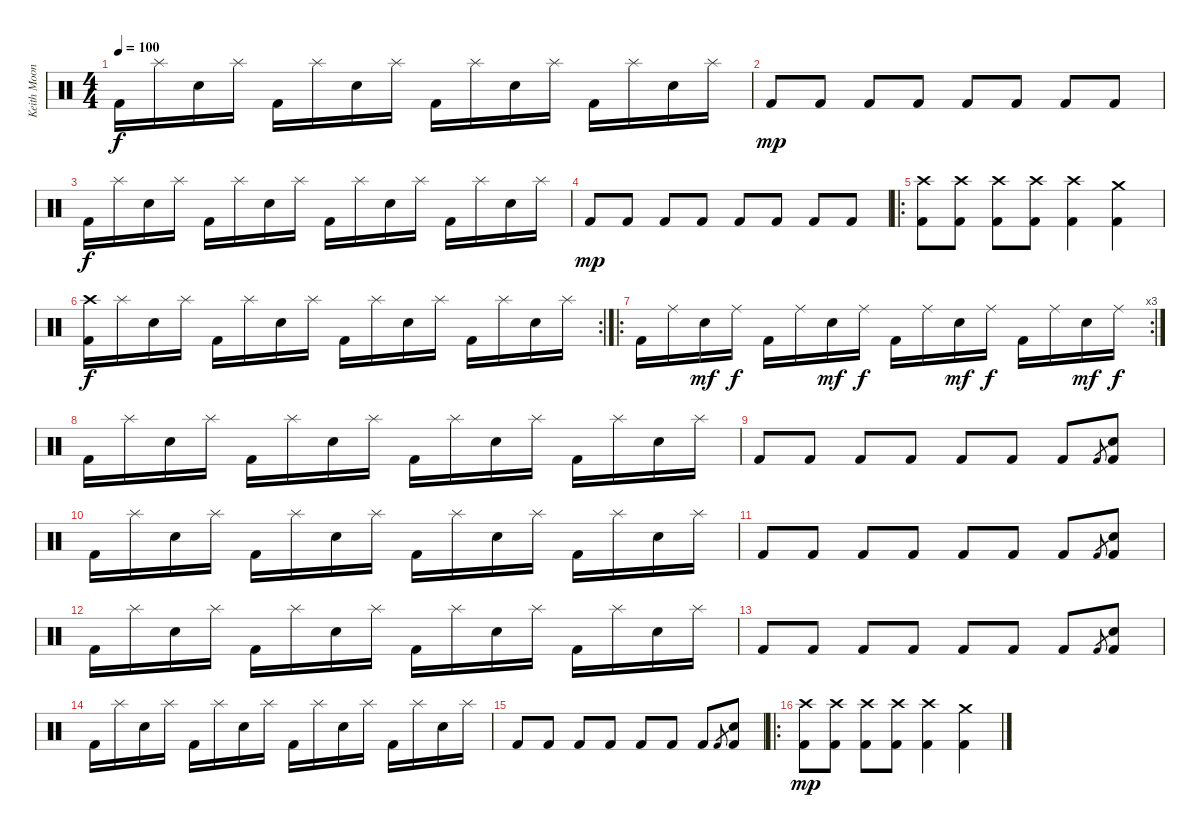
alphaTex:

\track ("Keith Moon - Drums" "Keith Moon") {instrument percussion}
\staff {score}
\articulation defaults
\ts (4 4)
\tempo 100
\clef neutral
\ks c "Kick (hit) 2".16{dy f} "Splash (hit)".16 "Electric Snare (hit)".16 "Splash (hit)".16 "Kick (hit) 2".16 "Splash (hit)".16 "Electric Snare (hit)".16 "Splash (hit)".16 "Kick (hit) 2".16 "Splash (hit)".16 "Electric Snare (hit)".16 "Splash (hit)".16 "Kick (hit) 2".16 "Splash (hit)".16 "Electric Snare (hit)".16 "Splash (hit)".16
|
"Kick (hit) 2".8{dy mp} "Kick (hit) 2".8 "Kick (hit) 2".8 "Kick (hit) 2".8 "Kick (hit) 2".8 "Kick (hit) 2".8 "Kick (hit) 2".8 "Kick (hit) 2".8 |
"Kick (hit) 2".16{dy f} "Splash (hit)".16 "Electric Snare (hit)".16 "Splash (hit)".16 "Kick (hit) 2".16 "Splash (hit)".16 "Electric Snare (hit)".16 "Splash (hit)".16 "Kick (hit) 2".16 "Splash (hit)".16 "Electric Snare (hit)".16 "Splash (hit)".16 "Kick (hit) 2".16 "Splash (hit)".16 "Electric Snare (hit)".16 "Splash (hit)".16 |
"Kick (hit) 2".8{dy mp} "Kick (hit) 2".8 "Kick (hit) 2".8 "Kick (hit) 2".8 "Kick (hit) 2".8 "Kick (hit) 2".8 "Kick (hit) 2".8 "Kick (hit) 2".8 |
\ro
("Kick (hit) 2" "Crash high (hit)").8 ("Kick (hit) 2" "Crash high (hit)").8 ("Kick (hit) 2" "Crash high (hit)").8 ("Kick (hit) 2" "Crash high (hit)").8 ("Kick (hit) 2" "Crash high (hit)").4 ("Kick (hit) 2" "Crash medium (hit)").4 |
\rc 2
("Kick (hit) 2" "Crash high (hit)").16{dy f} "Splash (hit)".16 "Electric Snare (hit)".16 "Splash (hit)".16 "Kick (hit) 2".16 "Splash (hit)".16 "Electric Snare (hit)".16 "Splash (hit)".16 "Kick (hit) 2".16 "Splash (hit)".16 "Electric Snare (hit)".16 "Splash (hit)".16 "Kick (hit) 2".16 "Splash (hit)".16 "Electric Snare (hit)".16 "Splash (hit)".16 |
\ro
\rc 3 "Kick (hit) 2".16 "Ride (middle)".16 "Electric Snare (hit)".16{dy mf} "Ride (middle)".16{dy f} "Kick (hit) 2".16 "Ride (middle)".16 "Electric Snare (hit)".16{dy mf} "Ride (middle)".16{dy f} "Kick (hit) 2".16 "Ride (middle)".16 "Electric Snare (hit)".16{dy mf} "Ride (middle)".16{dy f} "Kick (hit) 2".16 "Ride (middle)".16 "Electric Snare (hit)".16{dy mf} "Ride (middle)".16{dy f}
|
"Kick (hit) 2".16 "Splash (hit)".16 "Electric Snare (hit)".16 "Splash (hit)".16 "Kick (hit) 2".16 "Splash (hit)".16 "Electric Snare (hit)".16 "Splash (hit)".16 "Kick (hit) 2".16 "Splash (hit)".16 "Electric Snare (hit)".16 "Splash (hit)".16 "Kick (hit) 2".16 "Splash (hit)".16 "Electric Snare (hit)".16 "Splash (hit)".16 |
"Kick (hit) 2".8 "Kick (hit) 2".8 "Kick (hit) 2".8 "Kick (hit) 2".8 "Kick (hit) 2".8 "Kick (hit) 2".8 "Kick (hit) 2".8 "Kick (hit) 2".8{gr} ("Kick (hit) 2" "Electric Snare (hit)").8 |
"Kick (hit) 2".16 "Splash (hit)".16 "Electric Snare (hit)".16 "Splash (hit)".16 "Kick (hit) 2".16 "Splash (hit)".16 "Electric Snare (hit)".16 "Splash (hit)".16 "Kick (hit) 2".16 "Splash (hit)".16 "Electric Snare (hit)".16 "Splash (hit)".16 "Kick (hit) 2".16 "Splash (hit)".16 "Electric Snare (hit)".16 "Splash (hit)".16 |
"Kick (hit) 2".8 "Kick (hit) 2".8 "Kick (hit) 2".8 "Kick (hit) 2".8 "Kick (hit) 2".8 "Kick (hit) 2".8 "Kick (hit) 2".8 "Kick (hit) 2".8{gr} ("Kick (hit) 2" "Electric Snare (hit)").8 |
"Kick (hit) 2".16 "Splash (hit)".16 "Electric Snare (hit)".16 "Splash (hit)".16 "Kick (hit) 2".16 "Splash (hit)".16 "Electric Snare (hit)".16 "Splash (hit)".16 "Kick (hit) 2".16 "Splash (hit)".16 "Electric Snare (hit)".16 "Splash (hit)".16 "Kick (hit) 2".16 "Splash (hit)".16 "Electric Snare (hit)".16 "Splash (hit)".16 |
"Kick (hit) 2".8 "Kick (hit) 2".8 "Kick (hit) 2".8 "Kick (hit) 2".8 "Kick (hit) 2".8 "Kick (hit) 2".8 "Kick (hit) 2".8 "Kick (hit) 2".8{gr} ("Kick (hit) 2" "Electric Snare (hit)").8 |
"Kick (hit) 2".16 "Splash (hit)".16 "Electric Snare (hit)".16 "Splash (hit)".16 "Kick (hit) 2".16 "Splash (hit)".16 "Electric Snare (hit)".16 "Splash (hit)".16 "Kick (hit) 2".16 "Splash (hit)".16 "Electric Snare (hit)".16 "Splash (hit)".16 "Kick (hit) 2".16 "Splash (hit)".16 "Electric Snare (hit)".16 "Splash (hit)".16 |
"Kick (hit) 2".8 "Kick (hit) 2".8 "Kick (hit) 2".8 "Kick (hit) 2".8 "Kick (hit) 2".8 "Kick (hit) 2".8 "Kick (hit) 2".8 "Kick (hit) 2".8{gr} ("Kick (hit) 2" "Electric Snare (hit)").8 |
\ro
("Kick (hit) 2" "Crash high (hit)").8{dy mp} ("Kick (hit) 2" "Crash high (hit)").8 ("Kick (hit) 2" "Crash high (hit)").8 ("Kick (hit) 2" "Crash high (hit)").8 ("Kick (hit) 2" "Crash high (hit)").4 ("Kick (hit) 2" "Crash medium (hit)").4
